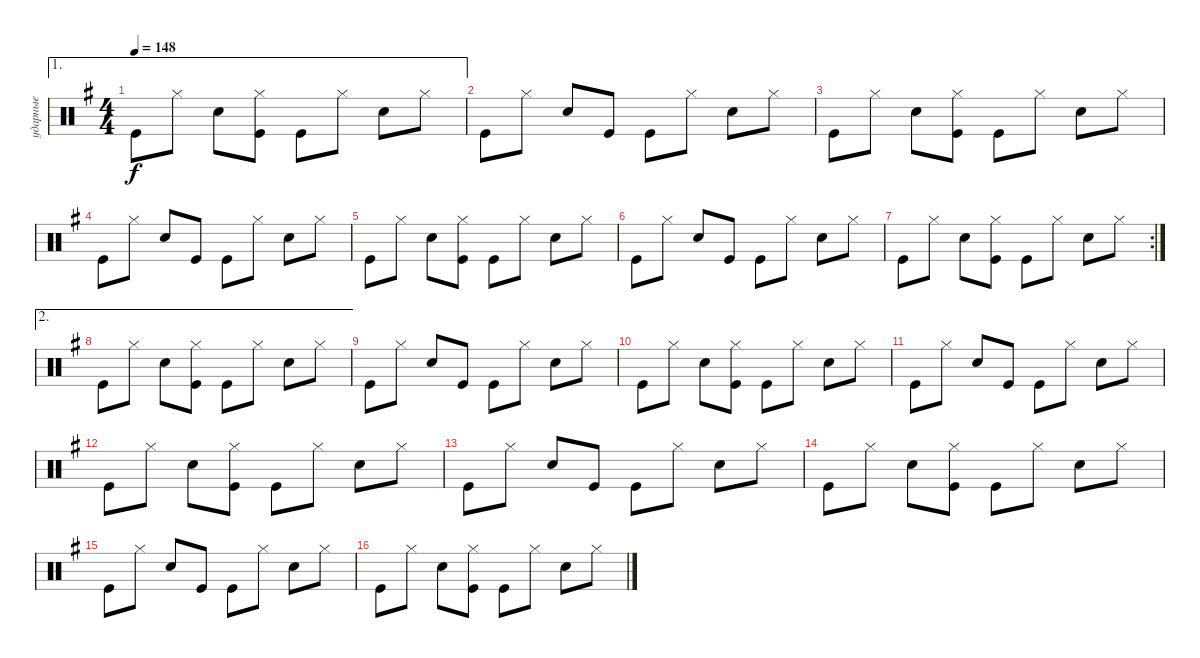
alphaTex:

\track ("ударные" "ударные") {instrument percussion}
\staff {score}
\articulation defaults
\ae 1
\ts (4 4)
\tempo 148
\clef neutral
\ks g "Kick (hit)".8{dy f} "Hi-Hat (closed)".8 "Snare (hit) 2".8
("Kick (hit)" "Hi-Hat (closed)").8 "Kick (hit)".8 "Hi-Hat (closed)".8 "Snare (hit) 2".8 "Hi-Hat (closed)".8 |
"Kick (hit)".8 "Hi-Hat (closed)".8 "Snare (hit) 2".8 "Kick (hit)".8 "Kick (hit)".8 "Hi-Hat (closed)".8 "Snare (hit) 2".8 "Hi-Hat (closed)".8 |
"Kick (hit)".8 "Hi-Hat (closed)".8 "Snare (hit) 2".8 ("Kick (hit)" "Hi-Hat (closed)").8 "Kick (hit)".8 "Hi-Hat (closed)".8 "Snare (hit) 2".8 "Hi-Hat (closed)".8 |
"Kick (hit)".8 "Hi-Hat (closed)".8 "Snare (hit) 2".8 "Kick (hit)".8 "Kick (hit)".8 "Hi-Hat (closed)".8 "Snare (hit) 2".8 "Hi-Hat (closed)".8 |
"Kick (hit)".8 "Hi-Hat (closed)".8 "Snare (hit) 2".8 ("Kick (hit)" "Hi-Hat (closed)").8 "Kick (hit)".8 "Hi-Hat (closed)".8 "Snare (hit) 2".8 "Hi-Hat (closed)".8 |
"Kick (hit)".8 "Hi-Hat (closed)".8 "Snare (hit) 2".8 "Kick (hit)".8 "Kick (hit)".8 "Hi-Hat (closed)".8 "Snare (hit) 2".8 "Hi-Hat (closed)".8 |
\rc 2 "Kick (hit)".8 "Hi-Hat (closed)".8 "Snare (hit) 2".8
("Kick (hit)" "Hi-Hat (closed)").8 "Kick (hit)".8 "Hi-Hat (closed)".8 "Snare (hit) 2".8 "Hi-Hat (closed)".8 |
\ae 2 "Kick (hit)".8 "Hi-Hat (closed)".8 "Snare (hit) 2".8
("Kick (hit)" "Hi-Hat (closed)").8 "Kick (hit)".8 "Hi-Hat (closed)".8 "Snare (hit) 2".8 "Hi-Hat (closed)".8 |
"Kick (hit)".8 "Hi-Hat (closed)".8 "Snare (hit) 2".8 "Kick (hit)".8 "Kick (hit)".8 "Hi-Hat (closed)".8 "Snare (hit) 2".8 "Hi-Hat (closed)".8 |
"Kick (hit)".8 "Hi-Hat (closed)".8 "Snare (hit) 2".8 ("Kick (hit)" "Hi-Hat (closed)").8 "Kick (hit)".8 "Hi-Hat (closed)".8 "Snare (hit) 2".8 "Hi-Hat (closed)".8 |
"Kick (hit)".8 "Hi-Hat (closed)".8 "Snare (hit) 2".8 "Kick (hit)".8 "Kick (hit)".8 "Hi-Hat (closed)".8 "Snare (hit) 2".8 "Hi-Hat (closed)".8 |
"Kick (hit)".8 "Hi-Hat (closed)".8 "Snare (hit) 2".8 ("Kick (hit)" "Hi-Hat (closed)").8 "Kick (hit)".8 "Hi-Hat (closed)".8 "Snare (hit) 2".8 "Hi-Hat (closed)".8 |
"Kick (hit)".8 "Hi-Hat (closed)".8 "Snare (hit) 2".8 "Kick (hit)".8 "Kick (hit)".8 "Hi-Hat (closed)".8 "Snare (hit) 2".8 "Hi-Hat (closed)".8 |
"Kick (hit)".8 "Hi-Hat (closed)".8 "Snare (hit) 2".8 ("Kick (hit)" "Hi-Hat (closed)").8 "Kick (hit)".8 "Hi-Hat (closed)".8 "Snare (hit) 2".8 "Hi-Hat (closed)".8 |
"Kick (hit)".8 "Hi-Hat (closed)".8 "Snare (hit) 2".8 "Kick (hit)".8 "Kick (hit)".8 "Hi-Hat (closed)".8 "Snare (hit) 2".8 "Hi-Hat (closed)".8 |
"Kick (hit)".8 "Hi-Hat (closed)".8 "Snare (hit) 2".8 ("Kick (hit)" "Hi-Hat (closed)").8 "Kick (hit)".8 "Hi-Hat (closed)".8 "Snare (hit) 2".8 "Hi-Hat (closed)".8
